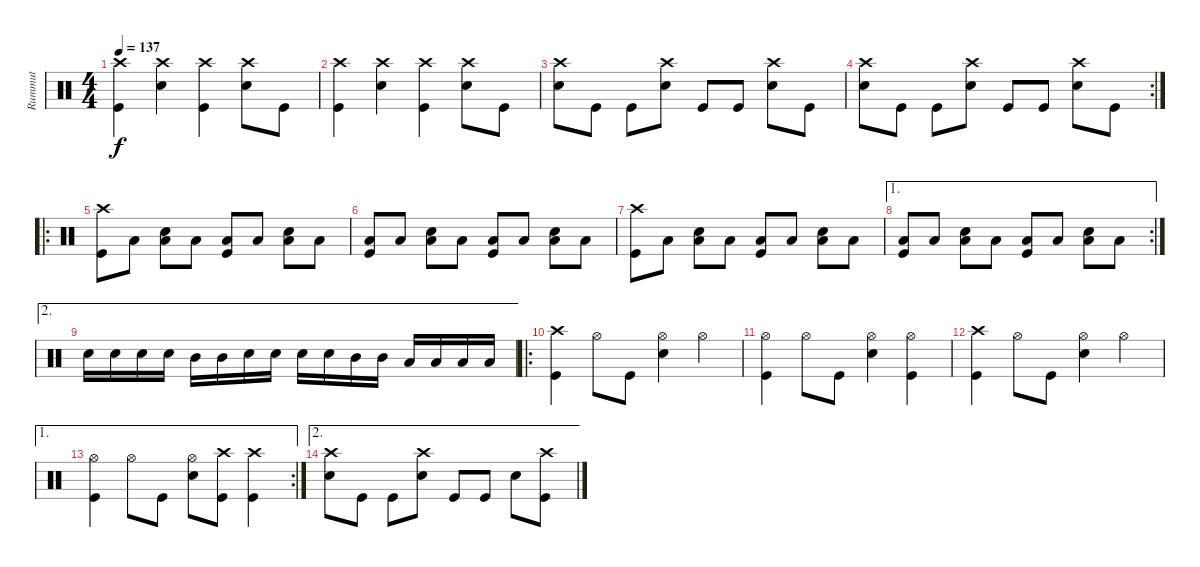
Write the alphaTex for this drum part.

\track ("Rummut" "Rummut") {instrument percussion}
\staff {score}
\articulation defaults
\ts (4 4)
\tempo 137
\clef neutral
\ks c
("Kick (hit)" "Crash high (hit)").4{dy f} ("Snare (hit) 2" "Crash high (hit)").4 ("Kick (hit)" "Crash high (hit)").4 ("Snare (hit) 2" "Crash high (hit)").8 "Kick (hit)".8 |
("Kick (hit)" "Crash high (hit)").4 ("Snare (hit) 2" "Crash high (hit)").4 ("Kick (hit)" "Crash high (hit)").4 ("Snare (hit) 2" "Crash high (hit)").8 "Kick (hit)".8 |
("Snare (hit) 2" "Crash high (hit)").8 "Kick (hit)".8 "Kick (hit)".8 ("Snare (hit) 2" "Crash high (hit)").8 "Kick (hit)".8 "Kick (hit)".8 ("Snare (hit) 2" "Crash high (hit)").8 "Kick (hit)".8 |
\rc 2
("Snare (hit) 2" "Crash high (hit)").8 "Kick (hit)".8 "Kick (hit)".8 ("Snare (hit) 2" "Crash high (hit)").8 "Kick (hit)".8 "Kick (hit)".8 ("Snare (hit) 2" "Crash high (hit)").8 "Kick (hit)".8 |
\ro
("Kick (hit)" "Crash high (hit)").8 "Low Floor Tom (hit)".8 ("Snare (hit) 2" "Low Floor Tom (hit)").8 "Low Floor Tom (hit)".8 ("Kick (hit)" "Low Floor Tom (hit)").8 "Low Floor Tom (hit)".8 ("Snare (hit) 2" "Low Floor Tom (hit)").8 "Low Floor Tom (hit)".8 |
("Kick (hit)" "Low Floor Tom (hit)").8 "Low Floor Tom (hit)".8 ("Snare (hit) 2" "Low Floor Tom (hit)").8 "Low Floor Tom (hit)".8 ("Kick (hit)" "Low Floor Tom (hit)").8 "Low Floor Tom (hit)".8 ("Snare (hit) 2" "Low Floor Tom (hit)").8 "Low Floor Tom (hit)".8 |
("Kick (hit)" "Crash high (hit)").8 "Low Floor Tom (hit)".8 ("Snare (hit) 2" "Low Floor Tom (hit)").8 "Low Floor Tom (hit)".8 ("Kick (hit)" "Low Floor Tom (hit)").8 "Low Floor Tom (hit)".8 ("Snare (hit) 2" "Low Floor Tom (hit)").8 "Low Floor Tom (hit)".8 |
\ae 1
\rc 2
("Kick (hit)" "Low Floor Tom (hit)").8 "Low Floor Tom (hit)".8 ("Snare (hit) 2" "Low Floor Tom (hit)").8 "Low Floor Tom (hit)".8 ("Kick (hit)" "Low Floor Tom (hit)").8 "Low Floor Tom (hit)".8 ("Snare (hit) 2" "Low Floor Tom (hit)").8 "Low Floor Tom (hit)".8 |
\ae 2 "Snare (hit) 2".16 "Snare (hit) 2".16 "Snare (hit) 2".16 "Snare (hit) 2".16 "Mid Tom (hit)".16 "Mid Tom (hit)".16 "Snare (hit) 2".16 "Snare (hit) 2".16 "Snare (hit) 2".16 "Snare (hit) 2".16 "Mid Tom (hit)".16 "Mid Tom (hit)".16 "Low Tom (hit)".16 "Low Tom (hit)".16 "Low Floor Tom (hit)".16 "Low Floor Tom (hit)".16
|
\ro
("Kick (hit)" "Crash high (hit)").4 "Hi-Hat (open)".8 "Kick (hit)".8 ("Snare (hit) 2" "Hi-Hat (open)").4 "Hi-Hat (open)".4 |
("Kick (hit)" "Hi-Hat (open)").4 "Hi-Hat (open)".8 "Kick (hit)".8 ("Snare (hit) 2" "Hi-Hat (open)").4 ("Kick (hit)" "Hi-Hat (open)").4 |
("Kick (hit)" "Crash high (hit)").4 "Hi-Hat (open)".8 "Kick (hit)".8 ("Snare (hit) 2" "Hi-Hat (open)").4 "Hi-Hat (open)".4 |
\ae 1
\rc 2
("Kick (hit)" "Hi-Hat (open)").4 "Hi-Hat (open)".8 "Kick (hit)".8 ("Snare (hit) 2" "Hi-Hat (open)").8 ("Kick (hit)" "Crash high (hit)").8 ("Kick (hit)" "Crash high (hit)").4 |
\ae 2
("Snare (hit) 2" "Crash high (hit)").8 "Kick (hit)".8 "Kick (hit)".8 ("Snare (hit) 2" "Crash high (hit)").8 "Kick (hit)".8 "Kick (hit)".8 "Snare (hit) 2".8 ("Kick (hit)" "Crash high (hit)").8
